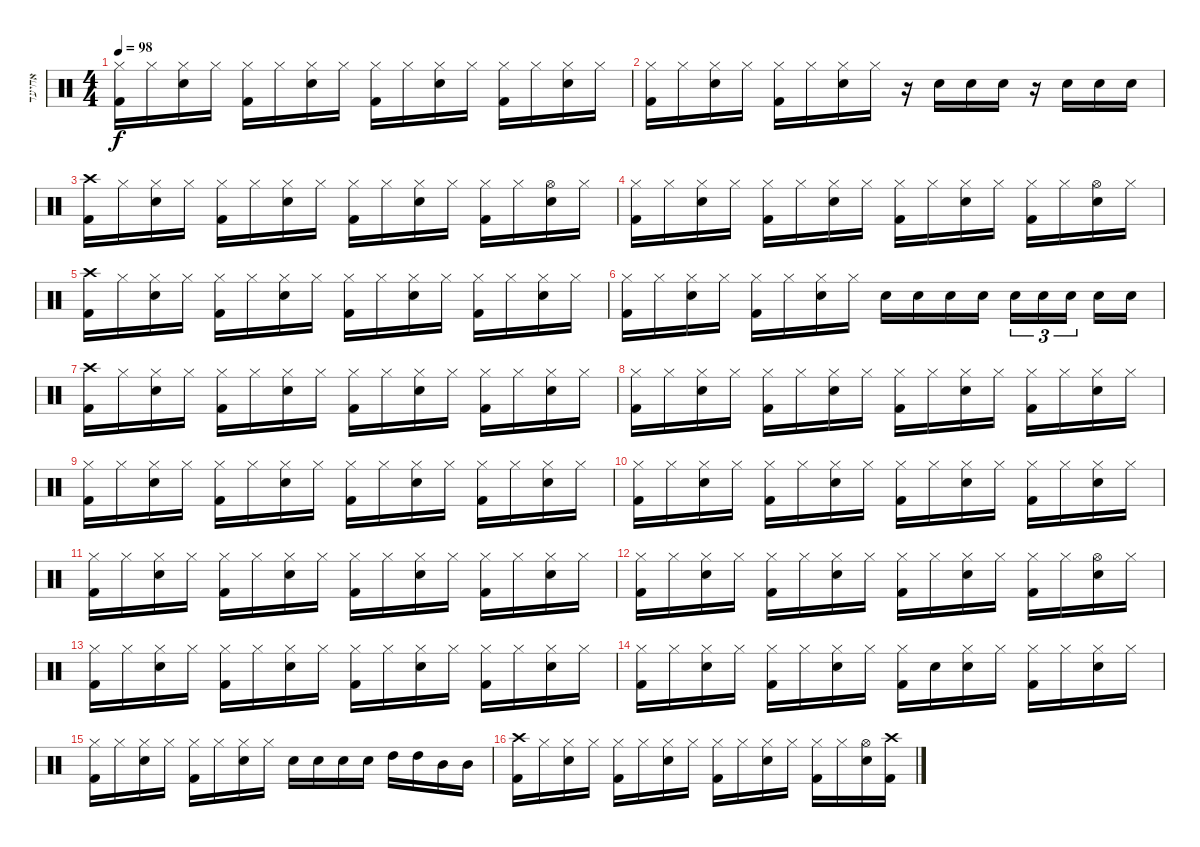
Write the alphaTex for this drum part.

\track ("אחיעד" "אחיעד") {instrument percussion}
\staff {score}
\articulation defaults
\ts (4 4)
\tempo 98
\clef neutral
\ks c
("Hi-Hat (closed)" "Kick (hit) 2").16{dy f} "Hi-Hat (closed)".16 ("Hi-Hat (closed)" "Snare (hit) 2").16 "Hi-Hat (closed)".16 ("Hi-Hat (closed)" "Kick (hit) 2").16 "Hi-Hat (closed)".16 ("Hi-Hat (closed)" "Snare (hit) 2").16 "Hi-Hat (closed)".16 ("Hi-Hat (closed)" "Kick (hit) 2").16 "Hi-Hat (closed)".16 ("Hi-Hat (closed)" "Snare (hit) 2").16 "Hi-Hat (closed)".16 ("Hi-Hat (closed)" "Kick (hit) 2").16 "Hi-Hat (closed)".16 ("Hi-Hat (closed)" "Snare (hit) 2").16 "Hi-Hat (closed)".16 |
("Hi-Hat (closed)" "Kick (hit) 2").16 "Hi-Hat (closed)".16 ("Hi-Hat (closed)" "Snare (hit) 2").16 "Hi-Hat (closed)".16 ("Hi-Hat (closed)" "Kick (hit) 2").16 "Hi-Hat (closed)".16 ("Hi-Hat (closed)" "Snare (hit) 2").16 "Hi-Hat (closed)".16 r.16 "Snare (hit) 2".16 "Snare (hit) 2".16 "Snare (hit) 2".16 r.16 "Snare (hit) 2".16 "Snare (hit) 2".16 "Snare (hit) 2".16 |
("Crash high (hit)" "Kick (hit) 2").16 "Hi-Hat (closed)".16 ("Hi-Hat (closed)" "Snare (hit) 2").16 "Hi-Hat (closed)".16 ("Hi-Hat (closed)" "Kick (hit) 2").16 "Hi-Hat (closed)".16 ("Hi-Hat (closed)" "Snare (hit) 2").16 "Hi-Hat (closed)".16 ("Hi-Hat (closed)" "Kick (hit) 2").16 "Hi-Hat (closed)".16 ("Hi-Hat (closed)" "Snare (hit) 2").16 "Hi-Hat (closed)".16 ("Hi-Hat (closed)" "Kick (hit) 2").16 "Hi-Hat (closed)".16 ("Hi-Hat (open)" "Snare (hit) 2").16 "Hi-Hat (closed)".16 |
("Hi-Hat (closed)" "Kick (hit) 2").16 "Hi-Hat (closed)".16 ("Hi-Hat (closed)" "Snare (hit) 2").16 "Hi-Hat (closed)".16 ("Hi-Hat (closed)" "Kick (hit) 2").16 "Hi-Hat (closed)".16 ("Hi-Hat (closed)" "Snare (hit) 2").16 "Hi-Hat (closed)".16 ("Hi-Hat (closed)" "Kick (hit) 2").16 "Hi-Hat (closed)".16 ("Hi-Hat (closed)" "Snare (hit) 2").16 "Hi-Hat (closed)".16 ("Hi-Hat (closed)" "Kick (hit) 2").16 "Hi-Hat (closed)".16 ("Hi-Hat (open)" "Snare (hit) 2").16 "Hi-Hat (closed)".16 |
("Crash high (hit)" "Kick (hit) 2").16 "Hi-Hat (closed)".16 ("Hi-Hat (closed)" "Snare (hit) 2").16 "Hi-Hat (closed)".16 ("Hi-Hat (closed)" "Kick (hit) 2").16 "Hi-Hat (closed)".16 ("Hi-Hat (closed)" "Snare (hit) 2").16 "Hi-Hat (closed)".16 ("Hi-Hat (closed)" "Kick (hit) 2").16 "Hi-Hat (closed)".16 ("Hi-Hat (closed)" "Snare (hit) 2").16 "Hi-Hat (closed)".16 ("Hi-Hat (closed)" "Kick (hit) 2").16 "Hi-Hat (closed)".16 ("Hi-Hat (closed)" "Snare (hit) 2").16 "Hi-Hat (closed)".16 |
("Hi-Hat (closed)" "Kick (hit) 2").16 "Hi-Hat (closed)".16 ("Hi-Hat (closed)" "Snare (hit) 2").16 "Hi-Hat (closed)".16 ("Hi-Hat (closed)" "Kick (hit) 2").16 "Hi-Hat (closed)".16 ("Hi-Hat (closed)" "Snare (hit) 2").16 "Hi-Hat (closed)".16 "Snare (hit) 2".16 "Snare (hit) 2".16 "Snare (hit) 2".16 "Snare (hit) 2".16 "Snare (hit) 2".16{tu (3 2)} "Snare (hit) 2".16{tu (3 2)} "Snare (hit) 2".16{tu (3 2)} "Snare (hit) 2".16 "Snare (hit) 2".16 |
("Crash high (hit)" "Kick (hit) 2").16 "Hi-Hat (closed)".16 ("Hi-Hat (closed)" "Snare (hit) 2").16 "Hi-Hat (closed)".16 ("Hi-Hat (closed)" "Kick (hit) 2").16 "Hi-Hat (closed)".16 ("Hi-Hat (closed)" "Snare (hit) 2").16 "Hi-Hat (closed)".16 ("Hi-Hat (closed)" "Kick (hit) 2").16 "Hi-Hat (closed)".16 ("Hi-Hat (closed)" "Snare (hit) 2").16 "Hi-Hat (closed)".16 ("Hi-Hat (closed)" "Kick (hit) 2").16 "Hi-Hat (closed)".16 ("Hi-Hat (closed)" "Snare (hit) 2").16 "Hi-Hat (closed)".16 |
("Hi-Hat (closed)" "Kick (hit) 2").16 "Hi-Hat (closed)".16 ("Hi-Hat (closed)" "Snare (hit) 2").16 "Hi-Hat (closed)".16 ("Hi-Hat (closed)" "Kick (hit) 2").16 "Hi-Hat (closed)".16 ("Hi-Hat (closed)" "Snare (hit) 2").16 "Hi-Hat (closed)".16 ("Hi-Hat (closed)" "Kick (hit) 2").16 "Hi-Hat (closed)".16 ("Hi-Hat (closed)" "Snare (hit) 2").16 "Hi-Hat (closed)".16 ("Hi-Hat (closed)" "Kick (hit) 2").16 "Hi-Hat (closed)".16 ("Hi-Hat (closed)" "Snare (hit) 2").16 "Hi-Hat (closed)".16 |
("Hi-Hat (closed)" "Kick (hit) 2").16 "Hi-Hat (closed)".16 ("Hi-Hat (closed)" "Snare (hit) 2").16 "Hi-Hat (closed)".16 ("Hi-Hat (closed)" "Kick (hit) 2").16 "Hi-Hat (closed)".16 ("Hi-Hat (closed)" "Snare (hit) 2").16 "Hi-Hat (closed)".16 ("Hi-Hat (closed)" "Kick (hit) 2").16 "Hi-Hat (closed)".16 ("Hi-Hat (closed)" "Snare (hit) 2").16 "Hi-Hat (closed)".16 ("Hi-Hat (closed)" "Kick (hit) 2").16 "Hi-Hat (closed)".16 ("Hi-Hat (closed)" "Snare (hit) 2").16 "Hi-Hat (closed)".16 |
("Hi-Hat (closed)" "Kick (hit) 2").16 "Hi-Hat (closed)".16 ("Hi-Hat (closed)" "Snare (hit) 2").16 "Hi-Hat (closed)".16 ("Hi-Hat (closed)" "Kick (hit) 2").16 "Hi-Hat (closed)".16 ("Hi-Hat (closed)" "Snare (hit) 2").16 "Hi-Hat (closed)".16 ("Hi-Hat (closed)" "Kick (hit) 2").16 "Hi-Hat (closed)".16 ("Hi-Hat (closed)" "Snare (hit) 2").16 "Hi-Hat (closed)".16 ("Hi-Hat (closed)" "Kick (hit) 2").16 "Hi-Hat (closed)".16 ("Hi-Hat (closed)" "Snare (hit) 2").16 "Hi-Hat (closed)".16 |
("Hi-Hat (closed)" "Kick (hit) 2").16 "Hi-Hat (closed)".16 ("Hi-Hat (closed)" "Snare (hit) 2").16 "Hi-Hat (closed)".16 ("Hi-Hat (closed)" "Kick (hit) 2").16 "Hi-Hat (closed)".16 ("Hi-Hat (closed)" "Snare (hit) 2").16 "Hi-Hat (closed)".16 ("Hi-Hat (closed)" "Kick (hit) 2").16 "Hi-Hat (closed)".16 ("Hi-Hat (closed)" "Snare (hit) 2").16 "Hi-Hat (closed)".16 ("Hi-Hat (closed)" "Kick (hit) 2").16 "Hi-Hat (closed)".16 ("Hi-Hat (closed)" "Snare (hit) 2").16 "Hi-Hat (closed)".16 |
("Hi-Hat (closed)" "Kick (hit) 2").16 "Hi-Hat (closed)".16 ("Hi-Hat (closed)" "Snare (hit) 2").16 "Hi-Hat (closed)".16 ("Hi-Hat (closed)" "Kick (hit) 2").16 "Hi-Hat (closed)".16 ("Hi-Hat (closed)" "Snare (hit) 2").16 "Hi-Hat (closed)".16 ("Hi-Hat (closed)" "Kick (hit) 2").16 "Hi-Hat (closed)".16 ("Hi-Hat (closed)" "Snare (hit) 2").16 "Hi-Hat (closed)".16 ("Hi-Hat (closed)" "Kick (hit) 2").16 "Hi-Hat (closed)".16 ("Hi-Hat (open)" "Snare (hit) 2").16 "Hi-Hat (closed)".16 |
("Hi-Hat (closed)" "Kick (hit) 2").16 "Hi-Hat (closed)".16 ("Hi-Hat (closed)" "Snare (hit) 2").16 "Hi-Hat (closed)".16 ("Hi-Hat (closed)" "Kick (hit) 2").16 "Hi-Hat (closed)".16 ("Hi-Hat (closed)" "Snare (hit) 2").16 "Hi-Hat (closed)".16 ("Hi-Hat (closed)" "Kick (hit) 2").16 "Hi-Hat (closed)".16 ("Hi-Hat (closed)" "Snare (hit) 2").16 "Hi-Hat (closed)".16 ("Hi-Hat (closed)" "Kick (hit) 2").16 "Hi-Hat (closed)".16 ("Hi-Hat (closed)" "Snare (hit) 2").16 "Hi-Hat (closed)".16 |
("Hi-Hat (closed)" "Kick (hit) 2").16 "Hi-Hat (closed)".16 ("Hi-Hat (closed)" "Snare (hit) 2").16 "Hi-Hat (closed)".16 ("Hi-Hat (closed)" "Kick (hit) 2").16 "Hi-Hat (closed)".16 ("Hi-Hat (closed)" "Snare (hit) 2").16 "Hi-Hat (closed)".16 ("Hi-Hat (closed)" "Kick (hit) 2").16 "Snare (hit)".16 ("Hi-Hat (closed)" "Snare (hit) 2").16 "Hi-Hat (closed)".16 ("Hi-Hat (closed)" "Kick (hit) 2").16 "Hi-Hat (closed)".16 ("Hi-Hat (closed)" "Snare (hit) 2").16 "Hi-Hat (closed)".16 |
("Hi-Hat (closed)" "Kick (hit) 2").16 "Hi-Hat (closed)".16 ("Hi-Hat (closed)" "Snare (hit) 2").16 "Hi-Hat (closed)".16 ("Hi-Hat (closed)" "Kick (hit) 2").16 "Hi-Hat (closed)".16 ("Hi-Hat (closed)" "Snare (hit) 2").16 "Hi-Hat (closed)".16 "Snare (hit) 2".16 "Snare (hit) 2".16 "Snare (hit) 2".16 "Snare (hit) 2".16 "High Tom (hit)".16 "High Tom (hit)".16 "Mid Tom (hit)".16 "Mid Tom (hit)".16 |
("Crash high (hit)" "Kick (hit) 2").16 "Hi-Hat (closed)".16 ("Hi-Hat (closed)" "Snare (hit) 2").16 "Hi-Hat (closed)".16 ("Hi-Hat (closed)" "Kick (hit) 2").16 "Hi-Hat (closed)".16 ("Hi-Hat (closed)" "Snare (hit) 2").16 "Hi-Hat (closed)".16 ("Hi-Hat (closed)" "Kick (hit) 2").16 "Hi-Hat (closed)".16 ("Hi-Hat (closed)" "Snare (hit) 2").16 "Hi-Hat (closed)".16 ("Hi-Hat (closed)" "Kick (hit) 2").16 "Hi-Hat (closed)".16 ("Hi-Hat (open)" "Snare (hit) 2").16 ("Crash high (hit)" "Kick (hit) 2").16
